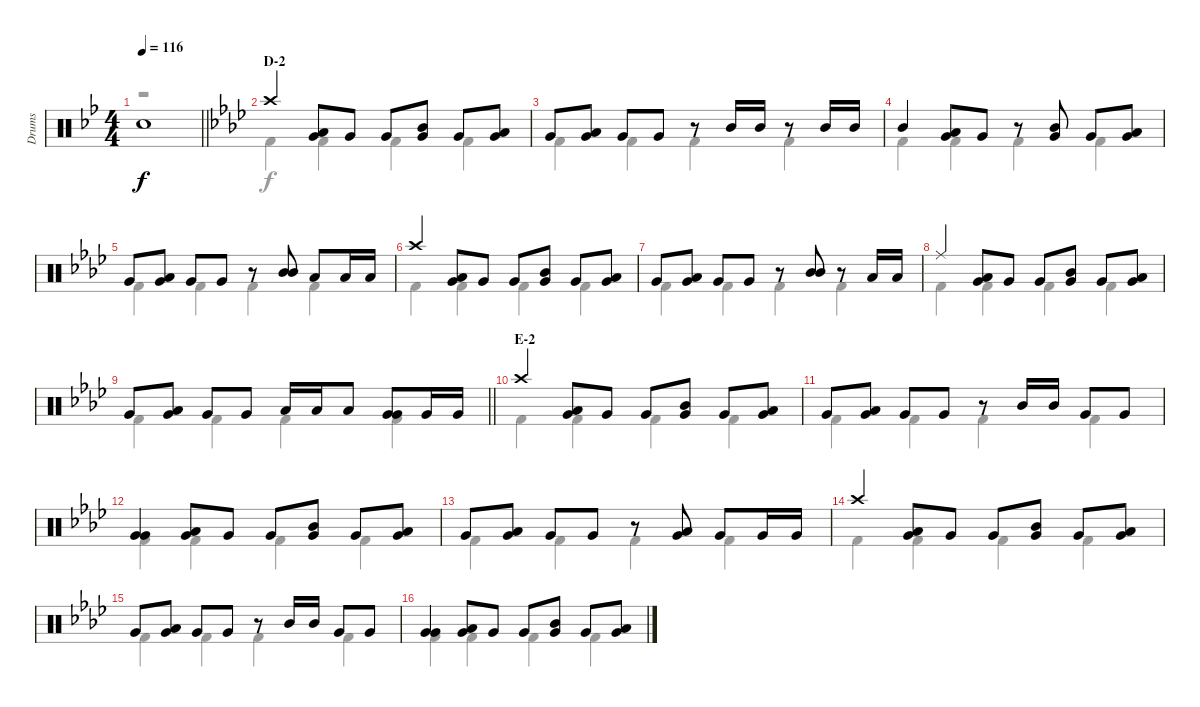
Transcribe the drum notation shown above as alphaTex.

\track ("Drums" "Drums") {instrument percussion}
\staff {score}
\articulation defaults
\voice
\ts (4 4)
\tempo 116
\clef neutral
\barLineRight lightlight
\ks bb "Snare (hit)"{t}.1{dy f}
|
\section ("" "D-2")
\ks ab "Crash high (hit)".4
("Low Tom (hit)" "Very Low Tom (hit)").8 "Very Low Tom (hit)".8 "Very Low Tom (hit)".8 ("Mid Tom (hit)" "Very Low Tom (hit)").8 "Very Low Tom (hit)".8 ("Low Tom (hit)" "Very Low Tom (hit)").8 |
"Very Low Tom (hit)".8 ("Low Tom (hit)" "Very Low Tom (hit)").8 "Very Low Tom (hit)".8 "Very Low Tom (hit)".8 r.8 "Mid Tom (hit)".16 "Mid Tom (hit)".16 r.8 "Mid Tom (hit)".16 "Mid Tom (hit)".16 |
"Mid Tom (hit)".4 ("Low Tom (hit)" "Very Low Tom (hit)").8 "Very Low Tom (hit)".8 r.8 ("Mid Tom (hit)" "Very Low Tom (hit)").8 "Very Low Tom (hit)".8 ("Low Tom (hit)" "Very Low Tom (hit)").8 |
"Very Low Tom (hit)".8 ("Low Tom (hit)" "Very Low Tom (hit)").8 "Very Low Tom (hit)".8 "Very Low Tom (hit)".8 r.8 ("Mid Tom (hit)" "Mid Tom (hit)").8 "Low Tom (hit)".8 "Low Tom (hit)".16 "Low Tom (hit)".16 |
"Crash high (hit)".4 ("Low Tom (hit)" "Very Low Tom (hit)").8 "Very Low Tom (hit)".8 "Very Low Tom (hit)".8 ("Mid Tom (hit)" "Very Low Tom (hit)").8 "Very Low Tom (hit)".8 ("Low Tom (hit)" "Very Low Tom (hit)").8 |
"Very Low Tom (hit)".8 ("Low Tom (hit)" "Very Low Tom (hit)").8 "Very Low Tom (hit)".8 "Very Low Tom (hit)".8 r.8 ("Mid Tom (hit)" "Mid Tom (hit)").8 r.8 "Low Tom (hit)".16 "Low Tom (hit)".16 |
"Ride (middle)".4 ("Low Tom (hit)" "Very Low Tom (hit)").8 "Very Low Tom (hit)".8 "Very Low Tom (hit)".8 ("Mid Tom (hit)" "Very Low Tom (hit)").8 "Very Low Tom (hit)".8 ("Low Tom (hit)" "Very Low Tom (hit)").8 |
\barLineRight lightlight "Very Low Tom (hit)".8
("Low Tom (hit)" "Very Low Tom (hit)").8 "Very Low Tom (hit)".8 "Very Low Tom (hit)".8 "Low Tom (hit)".16 "Low Tom (hit)".16 "Low Tom (hit)".8 ("Very Low Tom (hit)" "Very Low Tom (hit)").8 "Very Low Tom (hit)".16 "Very Low Tom (hit)".16 |
\section ("" "E-2")
"Crash high (hit)".4 ("Low Tom (hit)" "Very Low Tom (hit)").8 "Very Low Tom (hit)".8 "Very Low Tom (hit)".8 ("Mid Tom (hit)" "Very Low Tom (hit)").8 "Very Low Tom (hit)".8 ("Low Tom (hit)" "Very Low Tom (hit)").8 |
"Very Low Tom (hit)".8 ("Low Tom (hit)" "Very Low Tom (hit)").8 "Very Low Tom (hit)".8 "Very Low Tom (hit)".8 r.8 "Mid Tom (hit)".16 "Mid Tom (hit)".16 "Very Low Tom (hit)".8 "Very Low Tom (hit)".8 |
("Very Low Tom (hit)" "Very Low Tom (hit)").4 ("Low Tom (hit)" "Very Low Tom (hit)").8 "Very Low Tom (hit)".8 "Very Low Tom (hit)".8 ("Mid Tom (hit)" "Very Low Tom (hit)").8 "Very Low Tom (hit)".8 ("Low Tom (hit)" "Very Low Tom (hit)").8 |
"Very Low Tom (hit)".8 ("Low Tom (hit)" "Very Low Tom (hit)").8 "Very Low Tom (hit)".8 "Very Low Tom (hit)".8 r.8 ("Low Tom (hit)" "Very Low Tom (hit)").8 "Very Low Tom (hit)".8 "Very Low Tom (hit)".16 "Very Low Tom (hit)".16 |
"Crash high (hit)".4 ("Low Tom (hit)" "Very Low Tom (hit)").8 "Very Low Tom (hit)".8 "Very Low Tom (hit)".8 ("Mid Tom (hit)" "Very Low Tom (hit)").8 "Very Low Tom (hit)".8 ("Low Tom (hit)" "Very Low Tom (hit)").8 |
"Very Low Tom (hit)".8 ("Low Tom (hit)" "Very Low Tom (hit)").8 "Very Low Tom (hit)".8 "Very Low Tom (hit)".8 r.8 "Mid Tom (hit)".16 "Mid Tom (hit)".16 "Very Low Tom (hit)".8 "Very Low Tom (hit)".8 |
("Very Low Tom (hit)" "Very Low Tom (hit)").4 ("Low Tom (hit)" "Very Low Tom (hit)").8 "Very Low Tom (hit)".8 "Very Low Tom (hit)".8 ("Mid Tom (hit)" "Very Low Tom (hit)").8 "Very Low Tom (hit)".8 ("Low Tom (hit)" "Very Low Tom (hit)").8
\voice
\clef neutral
\ottava regular
\simile none
\barLineRight lightlight
\ks bb
r.1{dy f} |
\ks ab "Kick (hit) 2".4 "Kick (hit) 2".4 "Kick (hit) 2".4 "Kick (hit) 2".4
|
"Kick (hit) 2".4 "Kick (hit) 2".4 "Kick (hit) 2".4 "Kick (hit) 2".4 |
"Kick (hit) 2".4 "Kick (hit) 2".4 "Kick (hit) 2".4 "Kick (hit) 2".4 |
"Kick (hit) 2".4 "Kick (hit) 2".4 "Kick (hit) 2".4 "Kick (hit) 2".4 |
"Kick (hit) 2".4 "Kick (hit) 2".4 "Kick (hit) 2".4 "Kick (hit) 2".4 |
"Kick (hit) 2".4 "Kick (hit) 2".4 "Kick (hit) 2".4 "Kick (hit) 2".4 |
"Kick (hit) 2".4 "Kick (hit) 2".4 "Kick (hit) 2".4 "Kick (hit) 2".4 |
\barLineRight lightlight "Kick (hit) 2".4 "Kick (hit) 2".4 "Kick (hit) 2".4 "Kick (hit) 2".4
|
"Kick (hit) 2".4 "Kick (hit) 2".4 "Kick (hit) 2".4 "Kick (hit) 2".4 |
"Kick (hit) 2".4 "Kick (hit) 2".4 "Kick (hit) 2".4 "Kick (hit) 2".4 |
"Kick (hit) 2".4 "Kick (hit) 2".4 "Kick (hit) 2".4 "Kick (hit) 2".4 |
"Kick (hit) 2".4 "Kick (hit) 2".4 "Kick (hit) 2".4 "Kick (hit) 2".4 |
"Kick (hit) 2".4 "Kick (hit) 2".4 "Kick (hit) 2".4 "Kick (hit) 2".4 |
"Kick (hit) 2".4 "Kick (hit) 2".4 "Kick (hit) 2".4 "Kick (hit) 2".4 |
"Kick (hit) 2".4 "Kick (hit) 2".4 "Kick (hit) 2".4 "Kick (hit) 2".4
